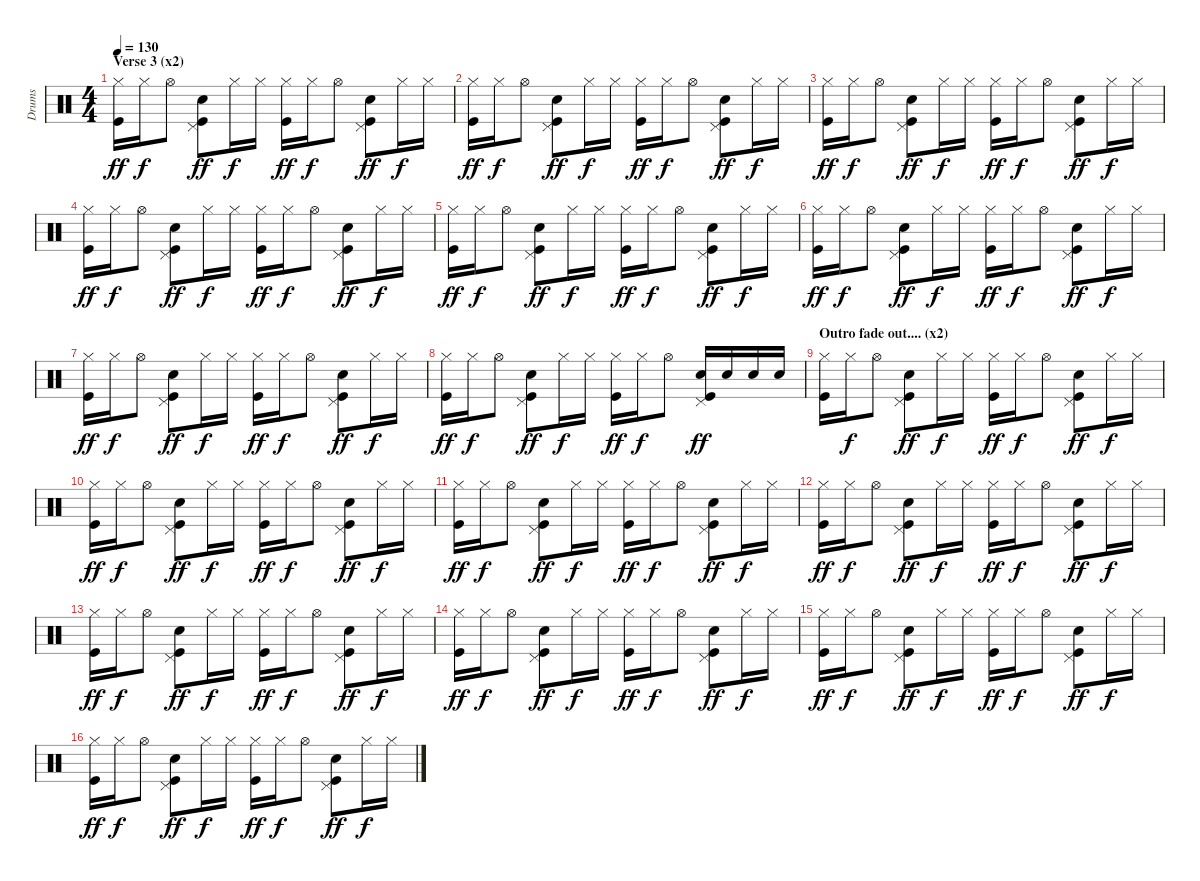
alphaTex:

\track ("Drums" "Drums") {instrument percussion}
\staff {score}
\articulation defaults
\ts (4 4)
\section ("" "Verse 3 (x2)")
\tempo 130
\clef neutral
\ks c
("Hi-Hat (closed)" "Kick (hit)").16{dy ff} "Hi-Hat (closed)".16{dy f} "Hi-Hat (open)".8 ("Pedal Hi-Hat (hit)" "Electric Snare (hit)" "Kick (hit)").8{dy ff} "Hi-Hat (closed)".16{dy f} "Hi-Hat (closed)".16 ("Hi-Hat (closed)" "Kick (hit)").16{dy ff} "Hi-Hat (closed)".16{dy f} "Hi-Hat (open)".8 ("Pedal Hi-Hat (hit)" "Electric Snare (hit)" "Kick (hit)").8{dy ff} "Hi-Hat (closed)".16{dy f} "Hi-Hat (closed)".16 |
("Hi-Hat (closed)" "Kick (hit)").16{dy ff} "Hi-Hat (closed)".16{dy f} "Hi-Hat (open)".8 ("Pedal Hi-Hat (hit)" "Electric Snare (hit)" "Kick (hit)").8{dy ff} "Hi-Hat (closed)".16{dy f} "Hi-Hat (closed)".16 ("Hi-Hat (closed)" "Kick (hit)").16{dy ff} "Hi-Hat (closed)".16{dy f} "Hi-Hat (open)".8 ("Pedal Hi-Hat (hit)" "Electric Snare (hit)" "Kick (hit)").8{dy ff} "Hi-Hat (closed)".16{dy f} "Hi-Hat (closed)".16 |
("Hi-Hat (closed)" "Kick (hit)").16{dy ff} "Hi-Hat (closed)".16{dy f} "Hi-Hat (open)".8 ("Pedal Hi-Hat (hit)" "Electric Snare (hit)" "Kick (hit)").8{dy ff} "Hi-Hat (closed)".16{dy f} "Hi-Hat (closed)".16 ("Hi-Hat (closed)" "Kick (hit)").16{dy ff} "Hi-Hat (closed)".16{dy f} "Hi-Hat (open)".8 ("Pedal Hi-Hat (hit)" "Electric Snare (hit)" "Kick (hit)").8{dy ff} "Hi-Hat (closed)".16{dy f} "Hi-Hat (closed)".16 |
("Hi-Hat (closed)" "Kick (hit)").16{dy ff} "Hi-Hat (closed)".16{dy f} "Hi-Hat (open)".8 ("Pedal Hi-Hat (hit)" "Electric Snare (hit)" "Kick (hit)").8{dy ff} "Hi-Hat (closed)".16{dy f} "Hi-Hat (closed)".16 ("Hi-Hat (closed)" "Kick (hit)").16{dy ff} "Hi-Hat (closed)".16{dy f} "Hi-Hat (open)".8 ("Pedal Hi-Hat (hit)" "Electric Snare (hit)" "Kick (hit)").8{dy ff} "Hi-Hat (closed)".16{dy f} "Hi-Hat (closed)".16 |
("Hi-Hat (closed)" "Kick (hit)").16{dy ff} "Hi-Hat (closed)".16{dy f} "Hi-Hat (open)".8 ("Pedal Hi-Hat (hit)" "Electric Snare (hit)" "Kick (hit)").8{dy ff} "Hi-Hat (closed)".16{dy f} "Hi-Hat (closed)".16 ("Hi-Hat (closed)" "Kick (hit)").16{dy ff} "Hi-Hat (closed)".16{dy f} "Hi-Hat (open)".8 ("Pedal Hi-Hat (hit)" "Electric Snare (hit)" "Kick (hit)").8{dy ff} "Hi-Hat (closed)".16{dy f} "Hi-Hat (closed)".16 |
("Hi-Hat (closed)" "Kick (hit)").16{dy ff} "Hi-Hat (closed)".16{dy f} "Hi-Hat (open)".8 ("Pedal Hi-Hat (hit)" "Electric Snare (hit)" "Kick (hit)").8{dy ff} "Hi-Hat (closed)".16{dy f} "Hi-Hat (closed)".16 ("Hi-Hat (closed)" "Kick (hit)").16{dy ff} "Hi-Hat (closed)".16{dy f} "Hi-Hat (open)".8 ("Pedal Hi-Hat (hit)" "Electric Snare (hit)" "Kick (hit)").8{dy ff} "Hi-Hat (closed)".16{dy f} "Hi-Hat (closed)".16 |
("Hi-Hat (closed)" "Kick (hit)").16{dy ff} "Hi-Hat (closed)".16{dy f} "Hi-Hat (open)".8 ("Pedal Hi-Hat (hit)" "Electric Snare (hit)" "Kick (hit)").8{dy ff} "Hi-Hat (closed)".16{dy f} "Hi-Hat (closed)".16 ("Hi-Hat (closed)" "Kick (hit)").16{dy ff} "Hi-Hat (closed)".16{dy f} "Hi-Hat (open)".8 ("Pedal Hi-Hat (hit)" "Electric Snare (hit)" "Kick (hit)").8{dy ff} "Hi-Hat (closed)".16{dy f} "Hi-Hat (closed)".16 |
("Hi-Hat (closed)" "Kick (hit)").16{dy ff} "Hi-Hat (closed)".16{dy f} "Hi-Hat (open)".8 ("Pedal Hi-Hat (hit)" "Electric Snare (hit)" "Kick (hit)").8{dy ff} "Hi-Hat (closed)".16{dy f} "Hi-Hat (closed)".16 ("Hi-Hat (closed)" "Kick (hit)").16{dy ff} "Hi-Hat (closed)".16{dy f} "Hi-Hat (open)".8 ("Pedal Hi-Hat (hit)" "Electric Snare (hit)" "Kick (hit)").16{dy ff} "Electric Snare (hit)".16 "Electric Snare (hit)".16 "Electric Snare (hit)".16 |
\section ("" "Outro fade out.... (x2)")
("Hi-Hat (closed)" "Kick (hit)").16 "Hi-Hat (closed)".16{dy f} "Hi-Hat (open)".8 ("Pedal Hi-Hat (hit)" "Electric Snare (hit)" "Kick (hit)").8{dy ff} "Hi-Hat (closed)".16{dy f} "Hi-Hat (closed)".16 ("Hi-Hat (closed)" "Kick (hit)").16{dy ff} "Hi-Hat (closed)".16{dy f} "Hi-Hat (open)".8 ("Pedal Hi-Hat (hit)" "Electric Snare (hit)" "Kick (hit)").8{dy ff} "Hi-Hat (closed)".16{dy f} "Hi-Hat (closed)".16 |
("Hi-Hat (closed)" "Kick (hit)").16{dy ff} "Hi-Hat (closed)".16{dy f} "Hi-Hat (open)".8 ("Pedal Hi-Hat (hit)" "Electric Snare (hit)" "Kick (hit)").8{dy ff} "Hi-Hat (closed)".16{dy f} "Hi-Hat (closed)".16 ("Hi-Hat (closed)" "Kick (hit)").16{dy ff} "Hi-Hat (closed)".16{dy f} "Hi-Hat (open)".8 ("Pedal Hi-Hat (hit)" "Electric Snare (hit)" "Kick (hit)").8{dy ff} "Hi-Hat (closed)".16{dy f} "Hi-Hat (closed)".16 |
("Hi-Hat (closed)" "Kick (hit)").16{dy ff} "Hi-Hat (closed)".16{dy f} "Hi-Hat (open)".8 ("Pedal Hi-Hat (hit)" "Electric Snare (hit)" "Kick (hit)").8{dy ff} "Hi-Hat (closed)".16{dy f} "Hi-Hat (closed)".16 ("Hi-Hat (closed)" "Kick (hit)").16{dy ff} "Hi-Hat (closed)".16{dy f} "Hi-Hat (open)".8 ("Pedal Hi-Hat (hit)" "Electric Snare (hit)" "Kick (hit)").8{dy ff} "Hi-Hat (closed)".16{dy f} "Hi-Hat (closed)".16 |
("Hi-Hat (closed)" "Kick (hit)").16{dy ff} "Hi-Hat (closed)".16{dy f} "Hi-Hat (open)".8 ("Pedal Hi-Hat (hit)" "Electric Snare (hit)" "Kick (hit)").8{dy ff} "Hi-Hat (closed)".16{dy f} "Hi-Hat (closed)".16 ("Hi-Hat (closed)" "Kick (hit)").16{dy ff} "Hi-Hat (closed)".16{dy f} "Hi-Hat (open)".8 ("Pedal Hi-Hat (hit)" "Electric Snare (hit)" "Kick (hit)").8{dy ff} "Hi-Hat (closed)".16{dy f} "Hi-Hat (closed)".16 |
("Hi-Hat (closed)" "Kick (hit)").16{dy ff} "Hi-Hat (closed)".16{dy f} "Hi-Hat (open)".8 ("Pedal Hi-Hat (hit)" "Electric Snare (hit)" "Kick (hit)").8{dy ff} "Hi-Hat (closed)".16{dy f} "Hi-Hat (closed)".16 ("Hi-Hat (closed)" "Kick (hit)").16{dy ff} "Hi-Hat (closed)".16{dy f} "Hi-Hat (open)".8 ("Pedal Hi-Hat (hit)" "Electric Snare (hit)" "Kick (hit)").8{dy ff} "Hi-Hat (closed)".16{dy f} "Hi-Hat (closed)".16 |
("Hi-Hat (closed)" "Kick (hit)").16{dy ff} "Hi-Hat (closed)".16{dy f} "Hi-Hat (open)".8 ("Pedal Hi-Hat (hit)" "Electric Snare (hit)" "Kick (hit)").8{dy ff} "Hi-Hat (closed)".16{dy f} "Hi-Hat (closed)".16 ("Hi-Hat (closed)" "Kick (hit)").16{dy ff} "Hi-Hat (closed)".16{dy f} "Hi-Hat (open)".8 ("Pedal Hi-Hat (hit)" "Electric Snare (hit)" "Kick (hit)").8{dy ff} "Hi-Hat (closed)".16{dy f} "Hi-Hat (closed)".16 |
("Hi-Hat (closed)" "Kick (hit)").16{dy ff} "Hi-Hat (closed)".16{dy f} "Hi-Hat (open)".8 ("Pedal Hi-Hat (hit)" "Electric Snare (hit)" "Kick (hit)").8{dy ff} "Hi-Hat (closed)".16{dy f} "Hi-Hat (closed)".16 ("Hi-Hat (closed)" "Kick (hit)").16{dy ff} "Hi-Hat (closed)".16{dy f} "Hi-Hat (open)".8 ("Pedal Hi-Hat (hit)" "Electric Snare (hit)" "Kick (hit)").8{dy ff} "Hi-Hat (closed)".16{dy f} "Hi-Hat (closed)".16 |
("Hi-Hat (closed)" "Kick (hit)").16{dy ff} "Hi-Hat (closed)".16{dy f} "Hi-Hat (open)".8 ("Pedal Hi-Hat (hit)" "Electric Snare (hit)" "Kick (hit)").8{dy ff} "Hi-Hat (closed)".16{dy f} "Hi-Hat (closed)".16 ("Hi-Hat (closed)" "Kick (hit)").16{dy ff} "Hi-Hat (closed)".16{dy f} "Hi-Hat (open)".8 ("Pedal Hi-Hat (hit)" "Electric Snare (hit)" "Kick (hit)").8{dy ff} "Hi-Hat (closed)".16{dy f} "Hi-Hat (closed)".16
